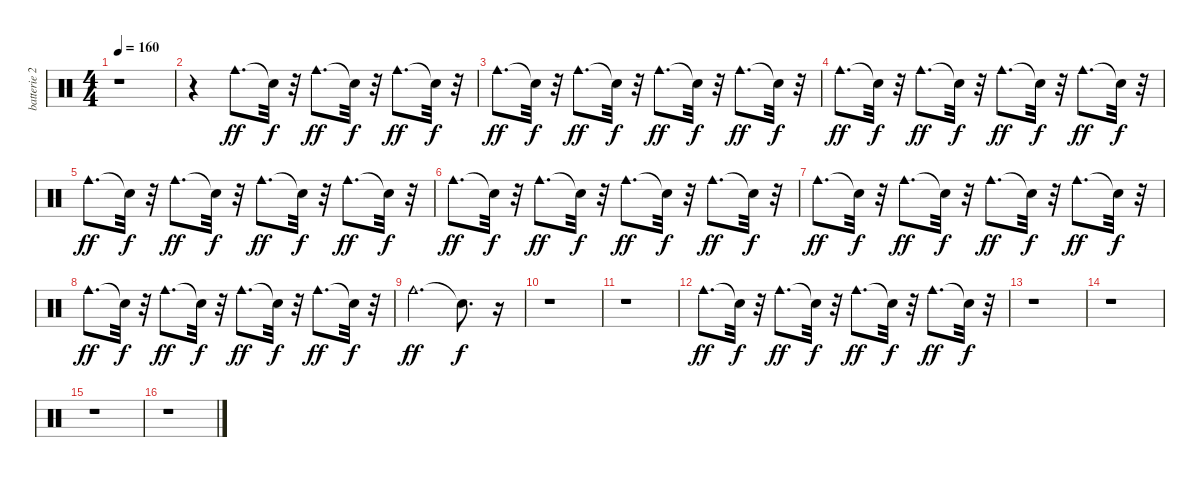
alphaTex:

\track ("batterie 2" "batterie 2") {instrument percussion}
\staff {score}
\articulation defaults
\ts (4 4)
\tempo 160
\clef neutral
\ks c
r.1{dy ff} |
r.4 "Cowbell medium (hit)".8{d} "Snare (hit)"{t}.32{dy f} r.32 "Cowbell medium (hit)".8{d dy ff} "Snare (hit)"{t}.32{dy f} r.32 "Cowbell medium (hit)".8{d dy ff} "Snare (hit)"{t}.32{dy f} r.32 |
"Cowbell medium (hit)".8{d dy ff} "Snare (hit)"{t}.32{dy f} r.32 "Cowbell medium (hit)".8{d dy ff} "Snare (hit)"{t}.32{dy f} r.32 "Cowbell medium (hit)".8{d dy ff} "Snare (hit)"{t}.32{dy f} r.32 "Cowbell medium (hit)".8{d dy ff} "Snare (hit)"{t}.32{dy f} r.32 |
"Cowbell medium (hit)".8{d dy ff} "Snare (hit)"{t}.32{dy f} r.32 "Cowbell medium (hit)".8{d dy ff} "Snare (hit)"{t}.32{dy f} r.32 "Cowbell medium (hit)".8{d dy ff} "Snare (hit)"{t}.32{dy f} r.32 "Cowbell medium (hit)".8{d dy ff} "Snare (hit)"{t}.32{dy f} r.32 |
"Cowbell medium (hit)".8{d dy ff} "Snare (hit)"{t}.32{dy f} r.32 "Cowbell medium (hit)".8{d dy ff} "Snare (hit)"{t}.32{dy f} r.32 "Cowbell medium (hit)".8{d dy ff} "Snare (hit)"{t}.32{dy f} r.32 "Cowbell medium (hit)".8{d dy ff} "Snare (hit)"{t}.32{dy f} r.32 |
"Cowbell medium (hit)".8{d dy ff} "Snare (hit)"{t}.32{dy f} r.32 "Cowbell medium (hit)".8{d dy ff} "Snare (hit)"{t}.32{dy f} r.32 "Cowbell medium (hit)".8{d dy ff} "Snare (hit)"{t}.32{dy f} r.32 "Cowbell medium (hit)".8{d dy ff} "Snare (hit)"{t}.32{dy f} r.32 |
"Cowbell medium (hit)".8{d dy ff} "Snare (hit)"{t}.32{dy f} r.32 "Cowbell medium (hit)".8{d dy ff} "Snare (hit)"{t}.32{dy f} r.32 "Cowbell medium (hit)".8{d dy ff} "Snare (hit)"{t}.32{dy f} r.32 "Cowbell medium (hit)".8{d dy ff} "Snare (hit)"{t}.32{dy f} r.32 |
"Cowbell medium (hit)".8{d dy ff} "Snare (hit)"{t}.32{dy f} r.32 "Cowbell medium (hit)".8{d dy ff} "Snare (hit)"{t}.32{dy f} r.32 "Cowbell medium (hit)".8{d dy ff} "Snare (hit)"{t}.32{dy f} r.32 "Cowbell medium (hit)".8{d dy ff} "Snare (hit)"{t}.32{dy f} r.32 |
"Cowbell medium (hit)".2{d dy ff} "Snare (hit)"{t}.8{d dy f} r.16 |
r.1 |
r.1 |
"Cowbell medium (hit)".8{d dy ff} "Snare (hit)"{t}.32{dy f} r.32 "Cowbell medium (hit)".8{d dy ff} "Snare (hit)"{t}.32{dy f} r.32 "Cowbell medium (hit)".8{d dy ff} "Snare (hit)"{t}.32{dy f} r.32 "Cowbell medium (hit)".8{d dy ff} "Snare (hit)"{t}.32{dy f} r.32 |
r.1 |
r.1 |
r.1 |
r.1
